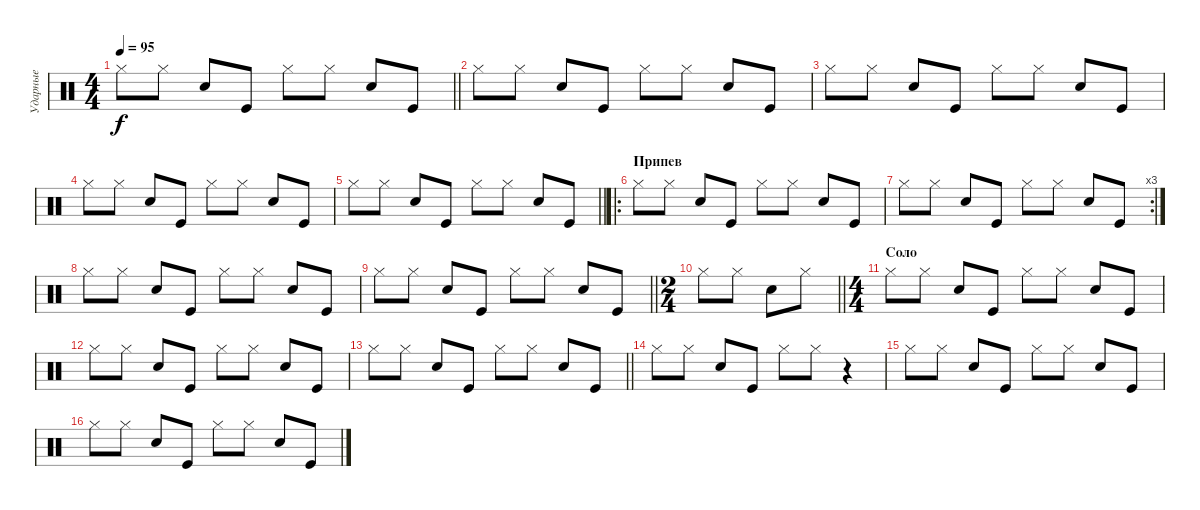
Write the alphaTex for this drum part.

\track ("Ударные" "Ударные") {instrument percussion}
\staff {score}
\articulation defaults
\ts (4 4)
\tempo 95
\clef neutral
\barLineRight lightlight
\ks c "Hi-Hat (closed)".8{dy f} "Hi-Hat (closed)".8 "Snare (hit) 2".8 "Kick (hit)".8 "Hi-Hat (closed)".8 "Hi-Hat (closed)".8 "Snare (hit) 2".8 "Kick (hit)".8
|
"Hi-Hat (closed)".8 "Hi-Hat (closed)".8 "Snare (hit) 2".8 "Kick (hit)".8 "Hi-Hat (closed)".8 "Hi-Hat (closed)".8 "Snare (hit) 2".8 "Kick (hit)".8 |
"Hi-Hat (closed)".8 "Hi-Hat (closed)".8 "Snare (hit) 2".8 "Kick (hit)".8 "Hi-Hat (closed)".8 "Hi-Hat (closed)".8 "Snare (hit) 2".8 "Kick (hit)".8 |
"Hi-Hat (closed)".8 "Hi-Hat (closed)".8 "Snare (hit) 2".8 "Kick (hit)".8 "Hi-Hat (closed)".8 "Hi-Hat (closed)".8 "Snare (hit) 2".8 "Kick (hit)".8 |
\barLineRight lightlight "Hi-Hat (closed)".8 "Hi-Hat (closed)".8 "Snare (hit) 2".8 "Kick (hit)".8 "Hi-Hat (closed)".8 "Hi-Hat (closed)".8 "Snare (hit) 2".8 "Kick (hit)".8
|
\ro
\section ("" "Припев")
"Hi-Hat (closed)".8 "Hi-Hat (closed)".8 "Snare (hit) 2".8 "Kick (hit)".8 "Hi-Hat (closed)".8 "Hi-Hat (closed)".8 "Snare (hit) 2".8 "Kick (hit)".8 |
\rc 3 "Hi-Hat (closed)".8 "Hi-Hat (closed)".8 "Snare (hit) 2".8 "Kick (hit)".8 "Hi-Hat (closed)".8 "Hi-Hat (closed)".8 "Snare (hit) 2".8 "Kick (hit)".8
|
"Hi-Hat (closed)".8 "Hi-Hat (closed)".8 "Snare (hit) 2".8 "Kick (hit)".8 "Hi-Hat (closed)".8 "Hi-Hat (closed)".8 "Snare (hit) 2".8 "Kick (hit)".8 |
\barLineRight lightlight "Hi-Hat (closed)".8 "Hi-Hat (closed)".8 "Snare (hit) 2".8 "Kick (hit)".8 "Hi-Hat (closed)".8 "Hi-Hat (closed)".8 "Snare (hit) 2".8 "Kick (hit)".8
|
\ts (2 4)
\barLineRight lightlight "Hi-Hat (closed)".8 "Hi-Hat (closed)".8 "Snare (hit) 2".8 "Hi-Hat (closed)".8
|
\ts (4 4)
\section ("" "Соло")
"Hi-Hat (closed)".8 "Hi-Hat (closed)".8 "Snare (hit) 2".8 "Kick (hit)".8 "Hi-Hat (closed)".8 "Hi-Hat (closed)".8 "Snare (hit) 2".8 "Kick (hit)".8 |
"Hi-Hat (closed)".8 "Hi-Hat (closed)".8 "Snare (hit) 2".8 "Kick (hit)".8 "Hi-Hat (closed)".8 "Hi-Hat (closed)".8 "Snare (hit) 2".8 "Kick (hit)".8 |
\barLineRight lightlight "Hi-Hat (closed)".8 "Hi-Hat (closed)".8 "Snare (hit) 2".8 "Kick (hit)".8 "Hi-Hat (closed)".8 "Hi-Hat (closed)".8 "Snare (hit) 2".8 "Kick (hit)".8
|
"Hi-Hat (closed)".8 "Hi-Hat (closed)".8 "Snare (hit) 2".8 "Kick (hit)".8 "Hi-Hat (closed)".8 "Hi-Hat (closed)".8 r.4 |
"Hi-Hat (closed)".8 "Hi-Hat (closed)".8 "Snare (hit) 2".8 "Kick (hit)".8 "Hi-Hat (closed)".8 "Hi-Hat (closed)".8 "Snare (hit) 2".8 "Kick (hit)".8 |
"Hi-Hat (closed)".8 "Hi-Hat (closed)".8 "Snare (hit) 2".8 "Kick (hit)".8 "Hi-Hat (closed)".8 "Hi-Hat (closed)".8 "Snare (hit) 2".8 "Kick (hit)".8
